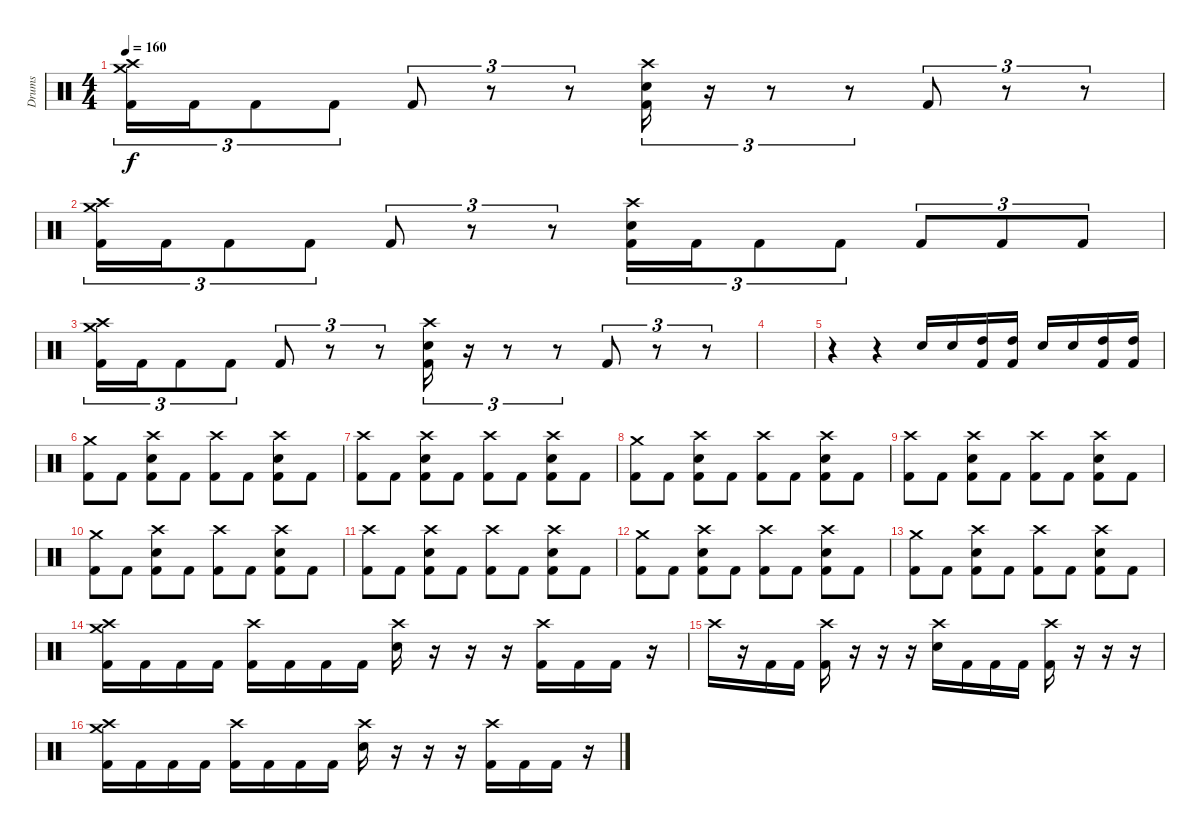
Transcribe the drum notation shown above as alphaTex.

\track ("Drums" "Drums") {instrument percussion}
\staff {score}
\articulation defaults
\ts (4 4)
\tempo 160
\clef neutral
\ks c
("Crash high (hit)" "Crash medium (hit)" "Kick (hit) 2").16{tu (3 2) dy f} "Kick (hit) 2".16{tu (3 2)} "Kick (hit) 2".8{tu (3 2)} "Kick (hit) 2".8{tu (3 2)} "Kick (hit) 2".8{tu (3 2)} r.8{tu (3 2)} r.8{tu (3 2)} ("Crash high (hit)" "Electric Snare (hit)" "Kick (hit) 2").16{tu (3 2)} r.16{tu (3 2)} r.8{tu (3 2)} r.8{tu (3 2)} "Kick (hit) 2".8{tu (3 2)} r.8{tu (3 2)} r.8{tu (3 2)} |
("Crash high (hit)" "Crash medium (hit)" "Kick (hit) 2").16{tu (3 2)} "Kick (hit) 2".16{tu (3 2)} "Kick (hit) 2".8{tu (3 2)} "Kick (hit) 2".8{tu (3 2)} "Kick (hit) 2".8{tu (3 2)} r.8{tu (3 2)} r.8{tu (3 2)} ("Crash high (hit)" "Electric Snare (hit)" "Kick (hit) 2").16{tu (3 2)} "Kick (hit) 2".16{tu (3 2)} "Kick (hit) 2".8{tu (3 2)} "Kick (hit) 2".8{tu (3 2)} "Kick (hit) 2".8{tu (3 2)} "Kick (hit) 2".8{tu (3 2)} "Kick (hit) 2".8{tu (3 2)} |
("Crash high (hit)" "Crash medium (hit)" "Kick (hit) 2").16{tu (3 2)} "Kick (hit) 2".16{tu (3 2)} "Kick (hit) 2".8{tu (3 2)} "Kick (hit) 2".8{tu (3 2)} "Kick (hit) 2".8{tu (3 2)} r.8{tu (3 2)} r.8{tu (3 2)} ("Crash high (hit)" "Electric Snare (hit)" "Kick (hit) 2").16{tu (3 2)} r.16{tu (3 2)} r.8{tu (3 2)} r.8{tu (3 2)} "Kick (hit) 2".8{tu (3 2)} r.8{tu (3 2)} r.8{tu (3 2)} |
|
r.4 r.4 "Electric Snare (hit)".16 "Electric Snare (hit)".16 ("High Tom (hit)" "Kick (hit) 2").16 ("High Tom (hit)" "Kick (hit) 2").16 "Electric Snare (hit)".16 "Electric Snare (hit)".16 ("High Tom (hit)" "Kick (hit) 2").16 ("High Tom (hit)" "Kick (hit) 2").16 |
("Crash medium (hit)" "Kick (hit) 2").8 "Kick (hit) 2".8 ("Crash high (hit)" "Electric Snare (hit)" "Kick (hit) 2").8 "Kick (hit) 2".8 ("Crash high (hit)" "Kick (hit) 2").8 "Kick (hit) 2".8 ("Crash high (hit)" "Electric Snare (hit)" "Kick (hit) 2").8 "Kick (hit) 2".8 |
("Crash high (hit)" "Kick (hit) 2").8 "Kick (hit) 2".8 ("Crash high (hit)" "Electric Snare (hit)" "Kick (hit) 2").8 "Kick (hit) 2".8 ("Crash high (hit)" "Kick (hit) 2").8 "Kick (hit) 2".8 ("Crash high (hit)" "Electric Snare (hit)" "Kick (hit) 2").8 "Kick (hit) 2".8 |
("Crash medium (hit)" "Kick (hit) 2").8 "Kick (hit) 2".8 ("Crash high (hit)" "Electric Snare (hit)" "Kick (hit) 2").8 "Kick (hit) 2".8 ("Crash high (hit)" "Kick (hit) 2").8 "Kick (hit) 2".8 ("Crash high (hit)" "Electric Snare (hit)" "Kick (hit) 2").8 "Kick (hit) 2".8 |
("Crash high (hit)" "Kick (hit) 2").8 "Kick (hit) 2".8 ("Crash high (hit)" "Electric Snare (hit)" "Kick (hit) 2").8 "Kick (hit) 2".8 ("Crash high (hit)" "Kick (hit) 2").8 "Kick (hit) 2".8 ("Crash high (hit)" "Electric Snare (hit)" "Kick (hit) 2").8 "Kick (hit) 2".8 |
("Crash medium (hit)" "Kick (hit) 2").8 "Kick (hit) 2".8 ("Crash high (hit)" "Electric Snare (hit)" "Kick (hit) 2").8 "Kick (hit) 2".8 ("Crash high (hit)" "Kick (hit) 2").8 "Kick (hit) 2".8 ("Crash high (hit)" "Electric Snare (hit)" "Kick (hit) 2").8 "Kick (hit) 2".8 |
("Crash high (hit)" "Kick (hit) 2").8 "Kick (hit) 2".8 ("Crash high (hit)" "Electric Snare (hit)" "Kick (hit) 2").8 "Kick (hit) 2".8 ("Crash high (hit)" "Kick (hit) 2").8 "Kick (hit) 2".8 ("Crash high (hit)" "Electric Snare (hit)" "Kick (hit) 2").8 "Kick (hit) 2".8 |
("Crash medium (hit)" "Kick (hit) 2").8 "Kick (hit) 2".8 ("Crash high (hit)" "Electric Snare (hit)" "Kick (hit) 2").8 "Kick (hit) 2".8 ("Crash high (hit)" "Kick (hit) 2").8 "Kick (hit) 2".8 ("Crash high (hit)" "Electric Snare (hit)" "Kick (hit) 2").8 "Kick (hit) 2".8 |
("Crash medium (hit)" "Kick (hit) 2").8 "Kick (hit) 2".8 ("Crash high (hit)" "Electric Snare (hit)" "Kick (hit) 2").8 "Kick (hit) 2".8 ("Crash high (hit)" "Kick (hit) 2").8 "Kick (hit) 2".8 ("Crash high (hit)" "Electric Snare (hit)" "Kick (hit) 2").8 "Kick (hit) 2".8 |
("Crash high (hit)" "Crash medium (hit)" "Kick (hit) 2").16 "Kick (hit) 2".16 "Kick (hit) 2".16 "Kick (hit) 2".16 ("Crash high (hit)" "Kick (hit) 2").16 "Kick (hit) 2".16 "Kick (hit) 2".16 "Kick (hit) 2".16 ("Crash high (hit)" "Electric Snare (hit)").16 r.16 r.16 r.16 ("Crash high (hit)" "Kick (hit) 2").16 "Kick (hit) 2".16 "Kick (hit) 2".16 r.16 |
"Crash high (hit)".16 r.16 "Kick (hit) 2".16 "Kick (hit) 2".16 ("Crash high (hit)" "Kick (hit) 2").16 r.16 r.16 r.16 ("Crash high (hit)" "Electric Snare (hit)").16 "Kick (hit) 2".16 "Kick (hit) 2".16 "Kick (hit) 2".16 ("Crash high (hit)" "Kick (hit) 2").16 r.16 r.16 r.16 |
("Crash high (hit)" "Crash medium (hit)" "Kick (hit) 2").16 "Kick (hit) 2".16 "Kick (hit) 2".16 "Kick (hit) 2".16 ("Crash high (hit)" "Kick (hit) 2").16 "Kick (hit) 2".16 "Kick (hit) 2".16 "Kick (hit) 2".16 ("Crash high (hit)" "Electric Snare (hit)").16 r.16 r.16 r.16 ("Crash high (hit)" "Kick (hit) 2").16 "Kick (hit) 2".16 "Kick (hit) 2".16 r.16
